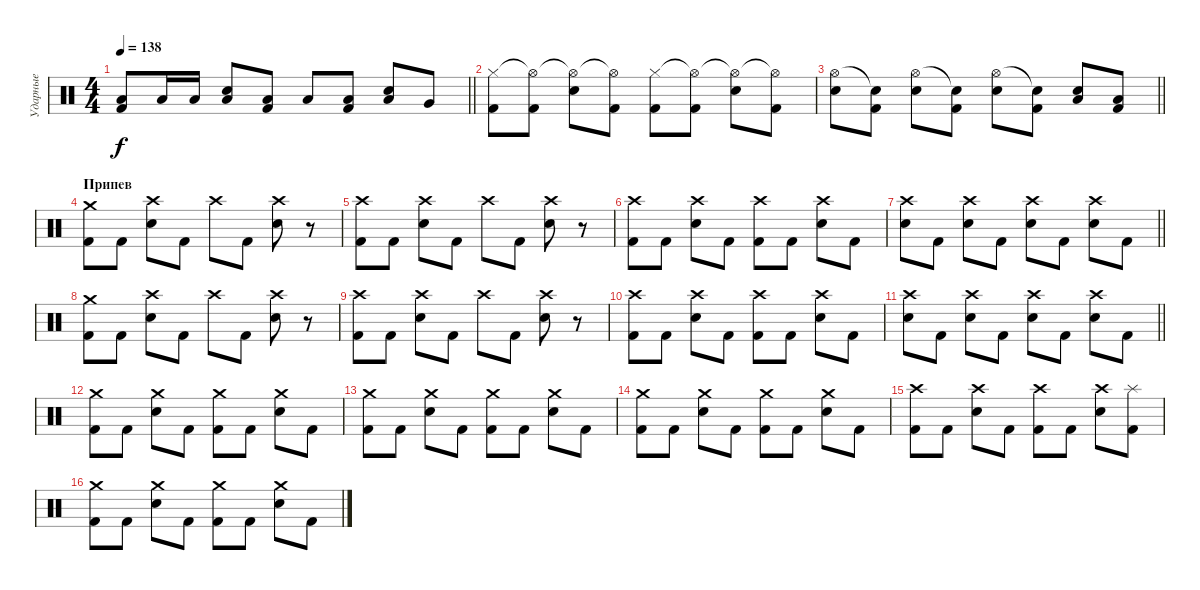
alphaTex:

\track ("Ударные" "Ударные") {instrument percussion}
\staff {score}
\articulation defaults
\ts (4 4)
\tempo 138
\clef neutral
\barLineRight lightlight
\ks c
("Low Tom (hit)" "Kick (hit) 2").8{dy f} "Low Floor Tom (hit)".16 "Low Floor Tom (hit)".16 ("Low Floor Tom (hit)" "Snare (hit) 2").8 ("Low Floor Tom (hit)" "Kick (hit) 2").8 "Low Floor Tom (hit)".8 ("Low Floor Tom (hit)" "Kick (hit) 2").8 ("Low Floor Tom (hit)" "Snare (hit) 2").8 "Very Low Tom (hit)".8 |
("Hi-Hat (closed)" "Kick (hit) 2").8 ("Hi-Hat (open)"{t} "Kick (hit) 2").8 ("Hi-Hat (open)"{t} "Snare (hit) 2").8 ("Hi-Hat (open)"{t} "Kick (hit) 2").8 ("Hi-Hat (closed)" "Kick (hit) 2").8 ("Hi-Hat (open)"{t} "Kick (hit) 2").8 ("Hi-Hat (open)"{t} "Snare (hit) 2").8 ("Hi-Hat (open)"{t} "Kick (hit) 2").8 |
\barLineRight lightlight
("Hi-Hat (open)" "Snare (hit) 2").8 ("Snare (hit)"{t} "Kick (hit) 2").8 ("Hi-Hat (open)" "Snare (hit) 2").8 ("Snare (hit)"{t} "Kick (hit) 2").8 ("Hi-Hat (open)" "Snare (hit) 2").8 ("Snare (hit)"{t} "Kick (hit) 2").8 ("Low Tom (hit)" "Snare (hit) 2").8 ("Low Floor Tom (hit)" "Kick (hit) 2").8 |
\section ("" "Припев")
("Crash medium (hit)" "Kick (hit) 2").8 "Kick (hit) 2".8 ("Crash high (hit)" "Snare (hit) 2").8 "Kick (hit) 2".8 "Crash high (hit)".8 "Kick (hit) 2".8 ("Crash high (hit)" "Snare (hit) 2").8 r.8 |
("Crash high (hit)" "Kick (hit) 2").8 "Kick (hit) 2".8 ("Crash high (hit)" "Snare (hit) 2").8 "Kick (hit) 2".8 "Crash high (hit)".8 "Kick (hit) 2".8 ("Crash high (hit)" "Snare (hit) 2").8 r.8 |
("Crash high (hit)" "Kick (hit) 2").8 "Kick (hit) 2".8 ("Crash high (hit)" "Snare (hit) 2").8 "Kick (hit) 2".8 ("Crash high (hit)" "Kick (hit) 2").8 "Kick (hit) 2".8 ("Crash high (hit)" "Snare (hit) 2").8 "Kick (hit) 2".8 |
\barLineRight lightlight
("Crash high (hit)" "Snare (hit) 2").8 "Kick (hit) 2".8 ("Crash high (hit)" "Snare (hit) 2").8 "Kick (hit) 2".8 ("Crash high (hit)" "Snare (hit) 2").8 "Kick (hit) 2".8 ("Crash high (hit)" "Snare (hit) 2").8 "Kick (hit) 2".8 |
("Crash medium (hit)" "Kick (hit) 2").8 "Kick (hit) 2".8 ("Crash high (hit)" "Snare (hit) 2").8 "Kick (hit) 2".8 "Crash high (hit)".8 "Kick (hit) 2".8 ("Crash high (hit)" "Snare (hit) 2").8 r.8 |
("Crash high (hit)" "Kick (hit) 2").8 "Kick (hit) 2".8 ("Crash high (hit)" "Snare (hit) 2").8 "Kick (hit) 2".8 "Crash high (hit)".8 "Kick (hit) 2".8 ("Crash high (hit)" "Snare (hit) 2").8 r.8 |
("Crash high (hit)" "Kick (hit) 2").8 "Kick (hit) 2".8 ("Crash high (hit)" "Snare (hit) 2").8 "Kick (hit) 2".8 ("Crash high (hit)" "Kick (hit) 2").8 "Kick (hit) 2".8 ("Crash high (hit)" "Snare (hit) 2").8 "Kick (hit) 2".8 |
\barLineRight lightlight
("Crash high (hit)" "Snare (hit) 2").8 "Kick (hit) 2".8 ("Crash high (hit)" "Snare (hit) 2").8 "Kick (hit) 2".8 ("Crash high (hit)" "Snare (hit) 2").8 "Kick (hit) 2".8 ("Crash high (hit)" "Snare (hit) 2").8 "Kick (hit) 2".8 |
("Crash medium (hit)" "Kick (hit) 2").8 "Kick (hit) 2".8 ("Crash medium (hit)" "Snare (hit) 2").8 "Kick (hit) 2".8 ("Crash medium (hit)" "Kick (hit) 2").8 "Kick (hit) 2".8 ("Crash medium (hit)" "Snare (hit) 2").8 "Kick (hit) 2".8 |
("Crash medium (hit)" "Kick (hit) 2").8 "Kick (hit) 2".8 ("Crash medium (hit)" "Snare (hit) 2").8 "Kick (hit) 2".8 ("Crash medium (hit)" "Kick (hit) 2").8 "Kick (hit) 2".8 ("Crash medium (hit)" "Snare (hit) 2").8 "Kick (hit) 2".8 |
("Crash medium (hit)" "Kick (hit) 2").8 "Kick (hit) 2".8 ("Crash medium (hit)" "Snare (hit) 2").8 "Kick (hit) 2".8 ("Crash medium (hit)" "Kick (hit) 2").8 "Kick (hit) 2".8 ("Crash medium (hit)" "Snare (hit) 2").8 "Kick (hit) 2".8 |
("Crash high (hit)" "Kick (hit) 2").8 "Kick (hit) 2".8 ("Crash high (hit)" "Snare (hit) 2").8 "Kick (hit) 2".8 ("Crash high (hit)" "Kick (hit) 2").8 "Kick (hit) 2".8 ("Crash high (hit)" "Snare (hit) 2").8 ("Splash (hit)" "Kick (hit) 2").8 |
("Crash medium (hit)" "Kick (hit) 2").8 "Kick (hit) 2".8 ("Crash medium (hit)" "Snare (hit) 2").8 "Kick (hit) 2".8 ("Crash medium (hit)" "Kick (hit) 2").8 "Kick (hit) 2".8 ("Crash medium (hit)" "Snare (hit) 2").8 "Kick (hit) 2".8
